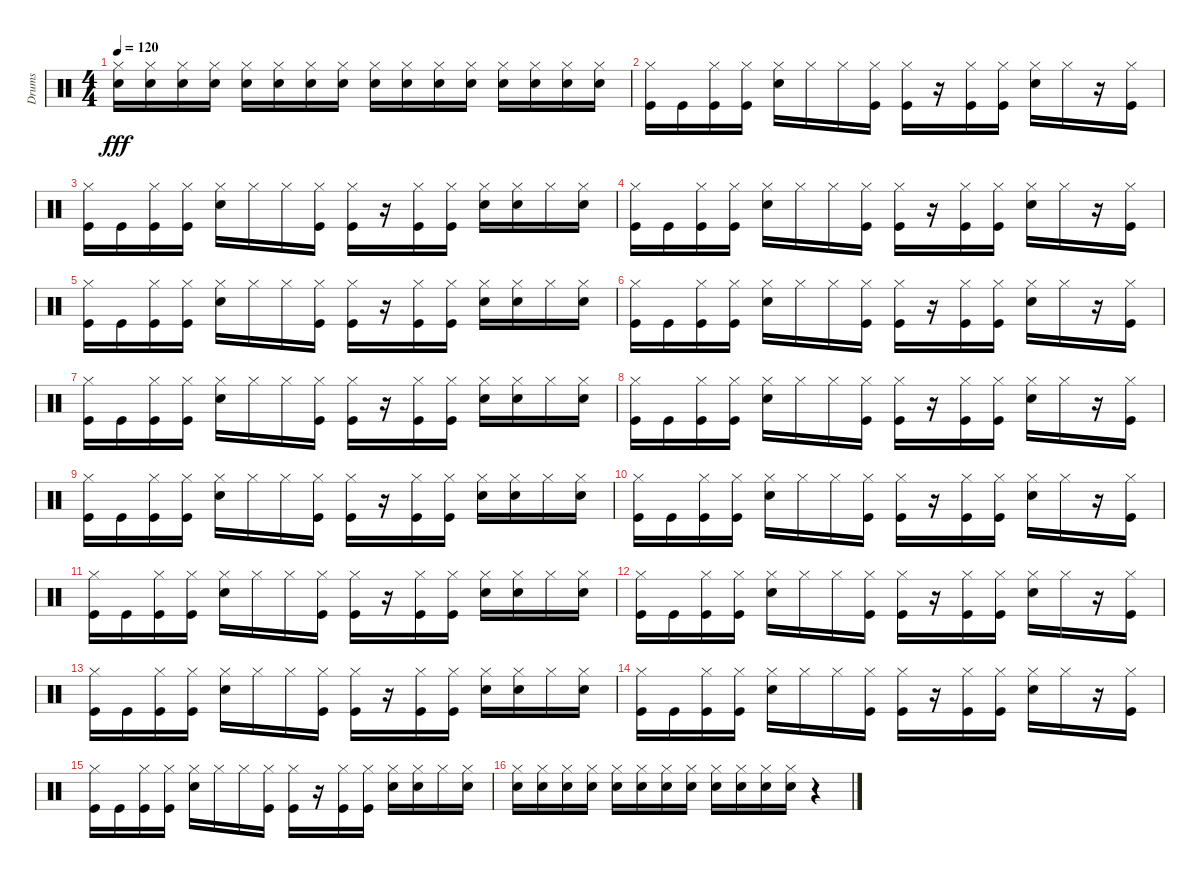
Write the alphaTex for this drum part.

\track ("Drums" "Drums") {instrument percussion}
\staff {score}
\articulation defaults
\ts (4 4)
\tempo 120
\clef neutral
\ks c
("Snare (hit) 2" "Hi-Hat (closed)").16{dy fff} ("Snare (hit) 2" "Hi-Hat (closed)").16 ("Snare (hit) 2" "Hi-Hat (closed)").16 ("Snare (hit) 2" "Hi-Hat (closed)").16 ("Snare (hit) 2" "Hi-Hat (closed)").16 ("Snare (hit) 2" "Hi-Hat (closed)").16 ("Snare (hit) 2" "Hi-Hat (closed)").16 ("Snare (hit) 2" "Hi-Hat (closed)").16 ("Snare (hit) 2" "Hi-Hat (closed)").16 ("Snare (hit) 2" "Hi-Hat (closed)").16 ("Snare (hit) 2" "Hi-Hat (closed)").16 ("Snare (hit) 2" "Hi-Hat (closed)").16 ("Snare (hit) 2" "Hi-Hat (closed)").16 ("Snare (hit) 2" "Hi-Hat (closed)").16 ("Snare (hit) 2" "Hi-Hat (closed)").16 ("Snare (hit) 2" "Hi-Hat (closed)").16 |
("Kick (hit)" "Hi-Hat (closed)").16 "Kick (hit)".16 ("Kick (hit)" "Hi-Hat (closed)").16 ("Kick (hit)" "Hi-Hat (closed)").16 ("Snare (hit) 2" "Hi-Hat (closed)").16 "Hi-Hat (closed)".16 "Hi-Hat (closed)".16 ("Kick (hit)" "Hi-Hat (closed)").16 ("Kick (hit)" "Hi-Hat (closed)").16 r.16 ("Kick (hit)" "Hi-Hat (closed)").16 ("Kick (hit)" "Hi-Hat (closed)").16 ("Snare (hit) 2" "Hi-Hat (closed)").16 "Hi-Hat (closed)".16 r.16 ("Kick (hit)" "Hi-Hat (closed)").16 |
("Kick (hit)" "Hi-Hat (closed)").16 "Kick (hit)".16 ("Kick (hit)" "Hi-Hat (closed)").16 ("Kick (hit)" "Hi-Hat (closed)").16 ("Snare (hit) 2" "Hi-Hat (closed)").16 "Hi-Hat (closed)".16 "Hi-Hat (closed)".16 ("Kick (hit)" "Hi-Hat (closed)").16 ("Kick (hit)" "Hi-Hat (closed)").16 r.16 ("Kick (hit)" "Hi-Hat (closed)").16 ("Kick (hit)" "Hi-Hat (closed)").16 ("Snare (hit) 2" "Hi-Hat (closed)").16 ("Snare (hit) 2" "Hi-Hat (closed)").16 "Hi-Hat (closed)".16 ("Snare (hit) 2" "Hi-Hat (closed)").16 |
("Kick (hit)" "Hi-Hat (closed)").16 "Kick (hit)".16 ("Kick (hit)" "Hi-Hat (closed)").16 ("Kick (hit)" "Hi-Hat (closed)").16 ("Snare (hit) 2" "Hi-Hat (closed)").16 "Hi-Hat (closed)".16 "Hi-Hat (closed)".16 ("Kick (hit)" "Hi-Hat (closed)").16 ("Kick (hit)" "Hi-Hat (closed)").16 r.16 ("Kick (hit)" "Hi-Hat (closed)").16 ("Kick (hit)" "Hi-Hat (closed)").16 ("Snare (hit) 2" "Hi-Hat (closed)").16 "Hi-Hat (closed)".16 r.16 ("Kick (hit)" "Hi-Hat (closed)").16 |
("Kick (hit)" "Hi-Hat (closed)").16 "Kick (hit)".16 ("Kick (hit)" "Hi-Hat (closed)").16 ("Kick (hit)" "Hi-Hat (closed)").16 ("Snare (hit) 2" "Hi-Hat (closed)").16 "Hi-Hat (closed)".16 "Hi-Hat (closed)".16 ("Kick (hit)" "Hi-Hat (closed)").16 ("Kick (hit)" "Hi-Hat (closed)").16 r.16 ("Kick (hit)" "Hi-Hat (closed)").16 ("Kick (hit)" "Hi-Hat (closed)").16 ("Snare (hit) 2" "Hi-Hat (closed)").16 ("Snare (hit) 2" "Hi-Hat (closed)").16 "Hi-Hat (closed)".16 ("Snare (hit) 2" "Hi-Hat (closed)").16 |
("Kick (hit)" "Hi-Hat (closed)").16 "Kick (hit)".16 ("Kick (hit)" "Hi-Hat (closed)").16 ("Kick (hit)" "Hi-Hat (closed)").16 ("Snare (hit) 2" "Hi-Hat (closed)").16 "Hi-Hat (closed)".16 "Hi-Hat (closed)".16 ("Kick (hit)" "Hi-Hat (closed)").16 ("Kick (hit)" "Hi-Hat (closed)").16 r.16 ("Kick (hit)" "Hi-Hat (closed)").16 ("Kick (hit)" "Hi-Hat (closed)").16 ("Snare (hit) 2" "Hi-Hat (closed)").16 "Hi-Hat (closed)".16 r.16 ("Kick (hit)" "Hi-Hat (closed)").16 |
("Kick (hit)" "Hi-Hat (closed)").16 "Kick (hit)".16 ("Kick (hit)" "Hi-Hat (closed)").16 ("Kick (hit)" "Hi-Hat (closed)").16 ("Snare (hit) 2" "Hi-Hat (closed)").16 "Hi-Hat (closed)".16 "Hi-Hat (closed)".16 ("Kick (hit)" "Hi-Hat (closed)").16 ("Kick (hit)" "Hi-Hat (closed)").16 r.16 ("Kick (hit)" "Hi-Hat (closed)").16 ("Kick (hit)" "Hi-Hat (closed)").16 ("Snare (hit) 2" "Hi-Hat (closed)").16 ("Snare (hit) 2" "Hi-Hat (closed)").16 "Hi-Hat (closed)".16 ("Snare (hit) 2" "Hi-Hat (closed)").16 |
("Kick (hit)" "Hi-Hat (closed)").16 "Kick (hit)".16 ("Kick (hit)" "Hi-Hat (closed)").16 ("Kick (hit)" "Hi-Hat (closed)").16 ("Snare (hit) 2" "Hi-Hat (closed)").16 "Hi-Hat (closed)".16 "Hi-Hat (closed)".16 ("Kick (hit)" "Hi-Hat (closed)").16 ("Kick (hit)" "Hi-Hat (closed)").16 r.16 ("Kick (hit)" "Hi-Hat (closed)").16 ("Kick (hit)" "Hi-Hat (closed)").16 ("Snare (hit) 2" "Hi-Hat (closed)").16 "Hi-Hat (closed)".16 r.16 ("Kick (hit)" "Hi-Hat (closed)").16 |
("Kick (hit)" "Hi-Hat (closed)").16 "Kick (hit)".16 ("Kick (hit)" "Hi-Hat (closed)").16 ("Kick (hit)" "Hi-Hat (closed)").16 ("Snare (hit) 2" "Hi-Hat (closed)").16 "Hi-Hat (closed)".16 "Hi-Hat (closed)".16 ("Kick (hit)" "Hi-Hat (closed)").16 ("Kick (hit)" "Hi-Hat (closed)").16 r.16 ("Kick (hit)" "Hi-Hat (closed)").16 ("Kick (hit)" "Hi-Hat (closed)").16 ("Snare (hit) 2" "Hi-Hat (closed)").16 ("Snare (hit) 2" "Hi-Hat (closed)").16 "Hi-Hat (closed)".16 ("Snare (hit) 2" "Hi-Hat (closed)").16 |
("Kick (hit)" "Hi-Hat (closed)").16 "Kick (hit)".16 ("Kick (hit)" "Hi-Hat (closed)").16 ("Kick (hit)" "Hi-Hat (closed)").16 ("Snare (hit) 2" "Hi-Hat (closed)").16 "Hi-Hat (closed)".16 "Hi-Hat (closed)".16 ("Kick (hit)" "Hi-Hat (closed)").16 ("Kick (hit)" "Hi-Hat (closed)").16 r.16 ("Kick (hit)" "Hi-Hat (closed)").16 ("Kick (hit)" "Hi-Hat (closed)").16 ("Snare (hit) 2" "Hi-Hat (closed)").16 "Hi-Hat (closed)".16 r.16 ("Kick (hit)" "Hi-Hat (closed)").16 |
("Kick (hit)" "Hi-Hat (closed)").16 "Kick (hit)".16 ("Kick (hit)" "Hi-Hat (closed)").16 ("Kick (hit)" "Hi-Hat (closed)").16 ("Snare (hit) 2" "Hi-Hat (closed)").16 "Hi-Hat (closed)".16 "Hi-Hat (closed)".16 ("Kick (hit)" "Hi-Hat (closed)").16 ("Kick (hit)" "Hi-Hat (closed)").16 r.16 ("Kick (hit)" "Hi-Hat (closed)").16 ("Kick (hit)" "Hi-Hat (closed)").16 ("Snare (hit) 2" "Hi-Hat (closed)").16 ("Snare (hit) 2" "Hi-Hat (closed)").16 "Hi-Hat (closed)".16 ("Snare (hit) 2" "Hi-Hat (closed)").16 |
("Kick (hit)" "Hi-Hat (closed)").16 "Kick (hit)".16 ("Kick (hit)" "Hi-Hat (closed)").16 ("Kick (hit)" "Hi-Hat (closed)").16 ("Snare (hit) 2" "Hi-Hat (closed)").16 "Hi-Hat (closed)".16 "Hi-Hat (closed)".16 ("Kick (hit)" "Hi-Hat (closed)").16 ("Kick (hit)" "Hi-Hat (closed)").16 r.16 ("Kick (hit)" "Hi-Hat (closed)").16 ("Kick (hit)" "Hi-Hat (closed)").16 ("Snare (hit) 2" "Hi-Hat (closed)").16 "Hi-Hat (closed)".16 r.16 ("Kick (hit)" "Hi-Hat (closed)").16 |
("Kick (hit)" "Hi-Hat (closed)").16 "Kick (hit)".16 ("Kick (hit)" "Hi-Hat (closed)").16 ("Kick (hit)" "Hi-Hat (closed)").16 ("Snare (hit) 2" "Hi-Hat (closed)").16 "Hi-Hat (closed)".16 "Hi-Hat (closed)".16 ("Kick (hit)" "Hi-Hat (closed)").16 ("Kick (hit)" "Hi-Hat (closed)").16 r.16 ("Kick (hit)" "Hi-Hat (closed)").16 ("Kick (hit)" "Hi-Hat (closed)").16 ("Snare (hit) 2" "Hi-Hat (closed)").16 ("Snare (hit) 2" "Hi-Hat (closed)").16 "Hi-Hat (closed)".16 ("Snare (hit) 2" "Hi-Hat (closed)").16 |
("Kick (hit)" "Hi-Hat (closed)").16 "Kick (hit)".16 ("Kick (hit)" "Hi-Hat (closed)").16 ("Kick (hit)" "Hi-Hat (closed)").16 ("Snare (hit) 2" "Hi-Hat (closed)").16 "Hi-Hat (closed)".16 "Hi-Hat (closed)".16 ("Kick (hit)" "Hi-Hat (closed)").16 ("Kick (hit)" "Hi-Hat (closed)").16 r.16 ("Kick (hit)" "Hi-Hat (closed)").16 ("Kick (hit)" "Hi-Hat (closed)").16 ("Snare (hit) 2" "Hi-Hat (closed)").16 "Hi-Hat (closed)".16 r.16 ("Kick (hit)" "Hi-Hat (closed)").16 |
("Kick (hit)" "Hi-Hat (closed)").16 "Kick (hit)".16 ("Kick (hit)" "Hi-Hat (closed)").16 ("Kick (hit)" "Hi-Hat (closed)").16 ("Snare (hit) 2" "Hi-Hat (closed)").16 "Hi-Hat (closed)".16 "Hi-Hat (closed)".16 ("Kick (hit)" "Hi-Hat (closed)").16 ("Kick (hit)" "Hi-Hat (closed)").16 r.16 ("Kick (hit)" "Hi-Hat (closed)").16 ("Kick (hit)" "Hi-Hat (closed)").16 ("Snare (hit) 2" "Hi-Hat (closed)").16 ("Snare (hit) 2" "Hi-Hat (closed)").16 "Hi-Hat (closed)".16 ("Snare (hit) 2" "Hi-Hat (closed)").16 |
("Snare (hit) 2" "Hi-Hat (closed)").16 ("Snare (hit) 2" "Hi-Hat (closed)").16 ("Snare (hit) 2" "Hi-Hat (closed)").16 ("Snare (hit) 2" "Hi-Hat (closed)").16 ("Snare (hit) 2" "Hi-Hat (closed)").16 ("Snare (hit) 2" "Hi-Hat (closed)").16 ("Snare (hit) 2" "Hi-Hat (closed)").16 ("Snare (hit) 2" "Hi-Hat (closed)").16 ("Snare (hit) 2" "Hi-Hat (closed)").16 ("Snare (hit) 2" "Hi-Hat (closed)").16 ("Snare (hit) 2" "Hi-Hat (closed)").16 ("Snare (hit) 2" "Hi-Hat (closed)").16 r.4
